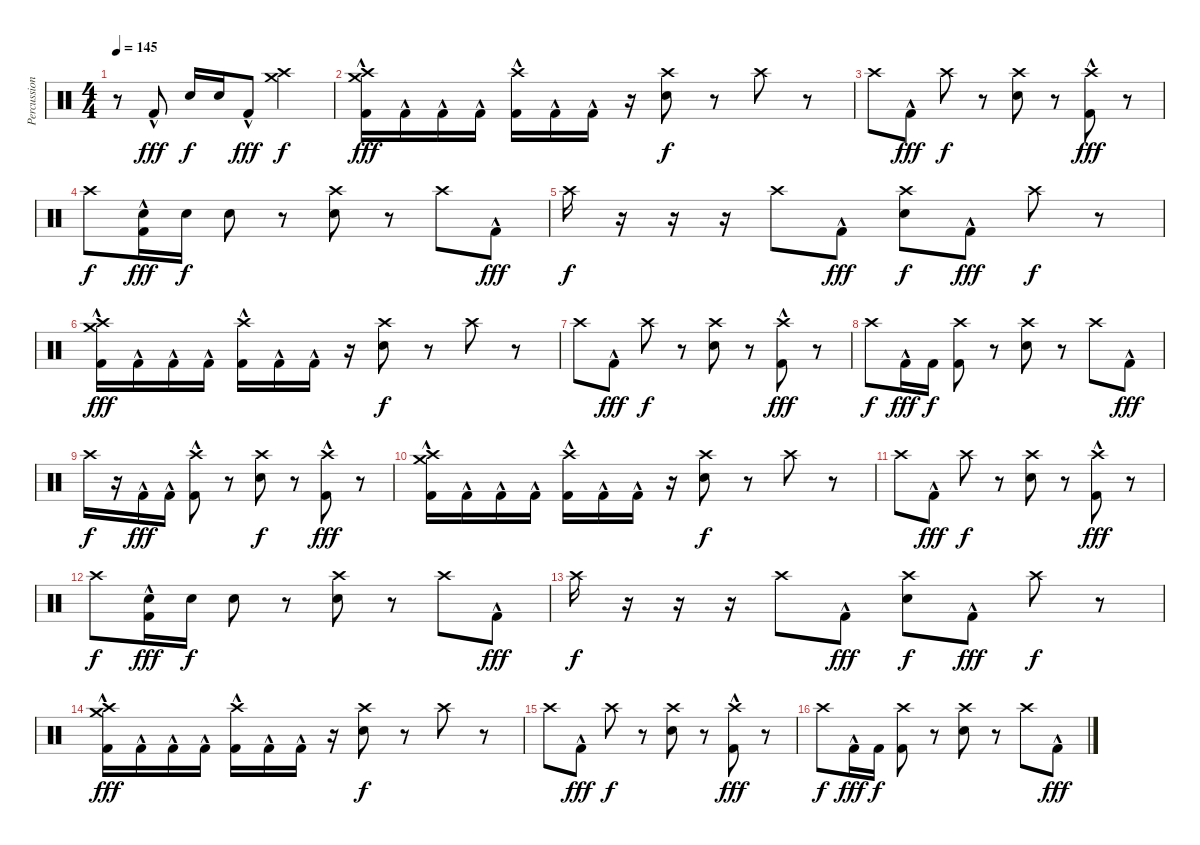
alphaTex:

\track ("Percussion" "Percussion") {instrument percussion}
\staff {score}
\articulation defaults
\ts (4 4)
\tempo 145
\clef neutral
\ks c
r.8{dy fff} "Kick (hit) 2"{hac}.8 "Snare (hit) 2".16{dy f} "Snare (hit) 2".16 "Kick (hit) 2"{hac}.8{dy fff} ("Crash high (hit)" "Crash medium (hit)").2{dy f} |
("Crash medium (hit)" "Crash high (hit)" "Kick (hit) 2"{hac}).16{dy fff} "Kick (hit) 2"{hac}.16 "Kick (hit) 2"{hac}.16 "Kick (hit) 2"{hac}.16 ("Crash high (hit)" "Kick (hit) 2"{hac}).16 "Kick (hit) 2"{hac}.16 "Kick (hit) 2"{hac}.16 r.16 ("Crash high (hit)" "Snare (hit) 2").8{dy f} r.8 "Crash high (hit)".8 r.8 |
"Crash high (hit)".8 "Kick (hit) 2"{hac}.8{dy fff} "Crash high (hit)".8{dy f} r.8 ("Crash high (hit)" "Snare (hit) 2").8 r.8 ("Crash high (hit)" "Kick (hit) 2"{hac}).8{dy fff} r.8 |
"Crash high (hit)".8{dy f} ("Snare (hit) 2" "Kick (hit) 2"{hac}).16{dy fff} "Snare (hit) 2".16{dy f} "Snare (hit) 2".8 r.8 ("Crash high (hit)" "Snare (hit) 2").8 r.8 "Crash high (hit)".8 "Kick (hit) 2"{hac}.8{dy fff} |
"Crash high (hit)".16{dy f} r.16 r.16 r.16 "Crash high (hit)".8 "Kick (hit) 2"{hac}.8{dy fff} ("Crash high (hit)" "Snare (hit) 2").8{dy f} "Kick (hit) 2"{hac}.8{dy fff} "Crash high (hit)".8{dy f} r.8 |
("Crash medium (hit)" "Crash high (hit)" "Kick (hit) 2"{hac}).16{dy fff} "Kick (hit) 2"{hac}.16 "Kick (hit) 2"{hac}.16 "Kick (hit) 2"{hac}.16 ("Crash high (hit)" "Kick (hit) 2"{hac}).16 "Kick (hit) 2"{hac}.16 "Kick (hit) 2"{hac}.16 r.16 ("Crash high (hit)" "Snare (hit) 2").8{dy f} r.8 "Crash high (hit)".8 r.8 |
"Crash high (hit)".8 "Kick (hit) 2"{hac}.8{dy fff} "Crash high (hit)".8{dy f} r.8 ("Crash high (hit)" "Snare (hit) 2").8 r.8 ("Crash high (hit)" "Kick (hit) 2"{hac}).8{dy fff} r.8 |
"Crash high (hit)".8{dy f} "Kick (hit) 2"{hac}.16{dy fff} "Kick (hit) 2".16{dy f} ("Crash high (hit)" "Kick (hit) 2").8 r.8 ("Crash high (hit)" "Snare (hit) 2").8 r.8 "Crash high (hit)".8 "Kick (hit) 2"{hac}.8{dy fff} |
"Crash high (hit)".16{dy f} r.16 "Kick (hit) 2"{hac}.16{dy fff} "Kick (hit) 2"{hac}.16 ("Crash high (hit)" "Kick (hit) 2"{hac}).8 r.8 ("Crash high (hit)" "Snare (hit) 2").8{dy f} r.8 ("Crash high (hit)" "Kick (hit) 2"{hac}).8{dy fff} r.8 |
("Crash medium (hit)" "Crash high (hit)" "Kick (hit) 2"{hac}).16 "Kick (hit) 2"{hac}.16 "Kick (hit) 2"{hac}.16 "Kick (hit) 2"{hac}.16 ("Crash high (hit)" "Kick (hit) 2"{hac}).16 "Kick (hit) 2"{hac}.16 "Kick (hit) 2"{hac}.16 r.16 ("Crash high (hit)" "Snare (hit) 2").8{dy f} r.8 "Crash high (hit)".8 r.8 |
"Crash high (hit)".8 "Kick (hit) 2"{hac}.8{dy fff} "Crash high (hit)".8{dy f} r.8 ("Crash high (hit)" "Snare (hit) 2").8 r.8 ("Crash high (hit)" "Kick (hit) 2"{hac}).8{dy fff} r.8 |
"Crash high (hit)".8{dy f} ("Snare (hit) 2" "Kick (hit) 2"{hac}).16{dy fff} "Snare (hit) 2".16{dy f} "Snare (hit) 2".8 r.8 ("Crash high (hit)" "Snare (hit) 2").8 r.8 "Crash high (hit)".8 "Kick (hit) 2"{hac}.8{dy fff} |
"Crash high (hit)".16{dy f} r.16 r.16 r.16 "Crash high (hit)".8 "Kick (hit) 2"{hac}.8{dy fff} ("Crash high (hit)" "Snare (hit) 2").8{dy f} "Kick (hit) 2"{hac}.8{dy fff} "Crash high (hit)".8{dy f} r.8 |
("Crash medium (hit)" "Crash high (hit)" "Kick (hit) 2"{hac}).16{dy fff} "Kick (hit) 2"{hac}.16 "Kick (hit) 2"{hac}.16 "Kick (hit) 2"{hac}.16 ("Crash high (hit)" "Kick (hit) 2"{hac}).16 "Kick (hit) 2"{hac}.16 "Kick (hit) 2"{hac}.16 r.16 ("Crash high (hit)" "Snare (hit) 2").8{dy f} r.8 "Crash high (hit)".8 r.8 |
"Crash high (hit)".8 "Kick (hit) 2"{hac}.8{dy fff} "Crash high (hit)".8{dy f} r.8 ("Crash high (hit)" "Snare (hit) 2").8 r.8 ("Crash high (hit)" "Kick (hit) 2"{hac}).8{dy fff} r.8 |
"Crash high (hit)".8{dy f} "Kick (hit) 2"{hac}.16{dy fff} "Kick (hit) 2".16{dy f} ("Crash high (hit)" "Kick (hit) 2").8 r.8 ("Crash high (hit)" "Snare (hit) 2").8 r.8 "Crash high (hit)".8 "Kick (hit) 2"{hac}.8{dy fff}
